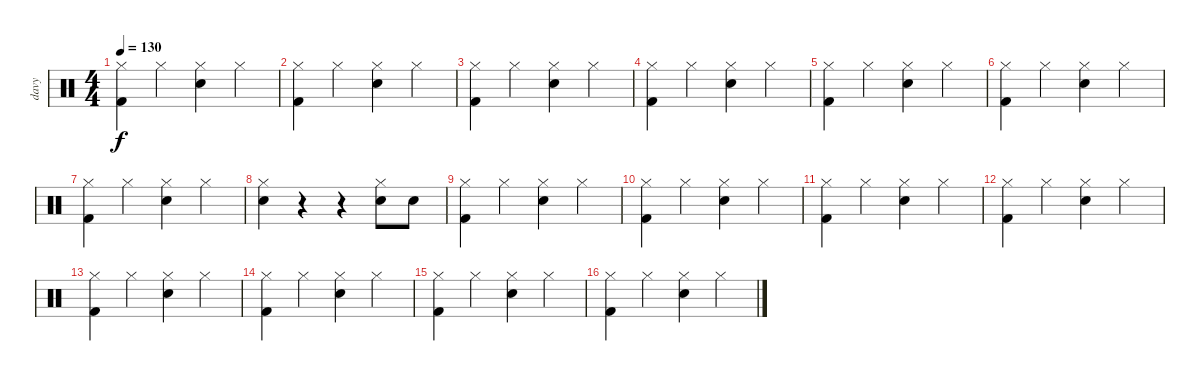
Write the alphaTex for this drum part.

\track ("davy" "davy") {instrument percussion}
\staff {score}
\articulation defaults
\ts (4 4)
\tempo 130
\clef neutral
\ks c
("Hi-Hat (closed)" "Kick (hit) 2").4{dy f} "Hi-Hat (closed)".4 ("Hi-Hat (closed)" "Snare (hit) 2").4 "Hi-Hat (closed)".4 |
("Hi-Hat (closed)" "Kick (hit) 2").4 "Hi-Hat (closed)".4 ("Hi-Hat (closed)" "Snare (hit) 2").4 "Hi-Hat (closed)".4 |
("Hi-Hat (closed)" "Kick (hit) 2").4 "Hi-Hat (closed)".4 ("Hi-Hat (closed)" "Snare (hit) 2").4 "Hi-Hat (closed)".4 |
("Hi-Hat (closed)" "Kick (hit) 2").4 "Hi-Hat (closed)".4 ("Hi-Hat (closed)" "Snare (hit) 2").4 "Hi-Hat (closed)".4 |
("Hi-Hat (closed)" "Kick (hit) 2").4 "Hi-Hat (closed)".4 ("Hi-Hat (closed)" "Snare (hit) 2").4 "Hi-Hat (closed)".4 |
("Hi-Hat (closed)" "Kick (hit) 2").4 "Hi-Hat (closed)".4 ("Hi-Hat (closed)" "Snare (hit) 2").4 "Hi-Hat (closed)".4 |
("Hi-Hat (closed)" "Kick (hit) 2").4 "Hi-Hat (closed)".4 ("Hi-Hat (closed)" "Snare (hit) 2").4 "Hi-Hat (closed)".4 |
("Hi-Hat (closed)" "Snare (hit) 2").4 r.4 r.4 ("Hi-Hat (closed)" "Snare (hit) 2").8 "Snare (hit) 2".8 |
("Hi-Hat (closed)" "Kick (hit) 2").4 "Hi-Hat (closed)".4 ("Hi-Hat (closed)" "Snare (hit) 2").4 "Hi-Hat (closed)".4 |
("Hi-Hat (closed)" "Kick (hit) 2").4 "Hi-Hat (closed)".4 ("Hi-Hat (closed)" "Snare (hit) 2").4 "Hi-Hat (closed)".4 |
("Hi-Hat (closed)" "Kick (hit) 2").4 "Hi-Hat (closed)".4 ("Hi-Hat (closed)" "Snare (hit) 2").4 "Hi-Hat (closed)".4 |
("Hi-Hat (closed)" "Kick (hit) 2").4 "Hi-Hat (closed)".4 ("Hi-Hat (closed)" "Snare (hit) 2").4 "Hi-Hat (closed)".4 |
("Hi-Hat (closed)" "Kick (hit) 2").4 "Hi-Hat (closed)".4 ("Hi-Hat (closed)" "Snare (hit) 2").4 "Hi-Hat (closed)".4 |
("Hi-Hat (closed)" "Kick (hit) 2").4 "Hi-Hat (closed)".4 ("Hi-Hat (closed)" "Snare (hit) 2").4 "Hi-Hat (closed)".4 |
("Hi-Hat (closed)" "Kick (hit) 2").4 "Hi-Hat (closed)".4 ("Hi-Hat (closed)" "Snare (hit) 2").4 "Hi-Hat (closed)".4 |
("Hi-Hat (closed)" "Kick (hit) 2").4 "Hi-Hat (closed)".4 ("Hi-Hat (closed)" "Snare (hit) 2").4 "Hi-Hat (closed)".4
